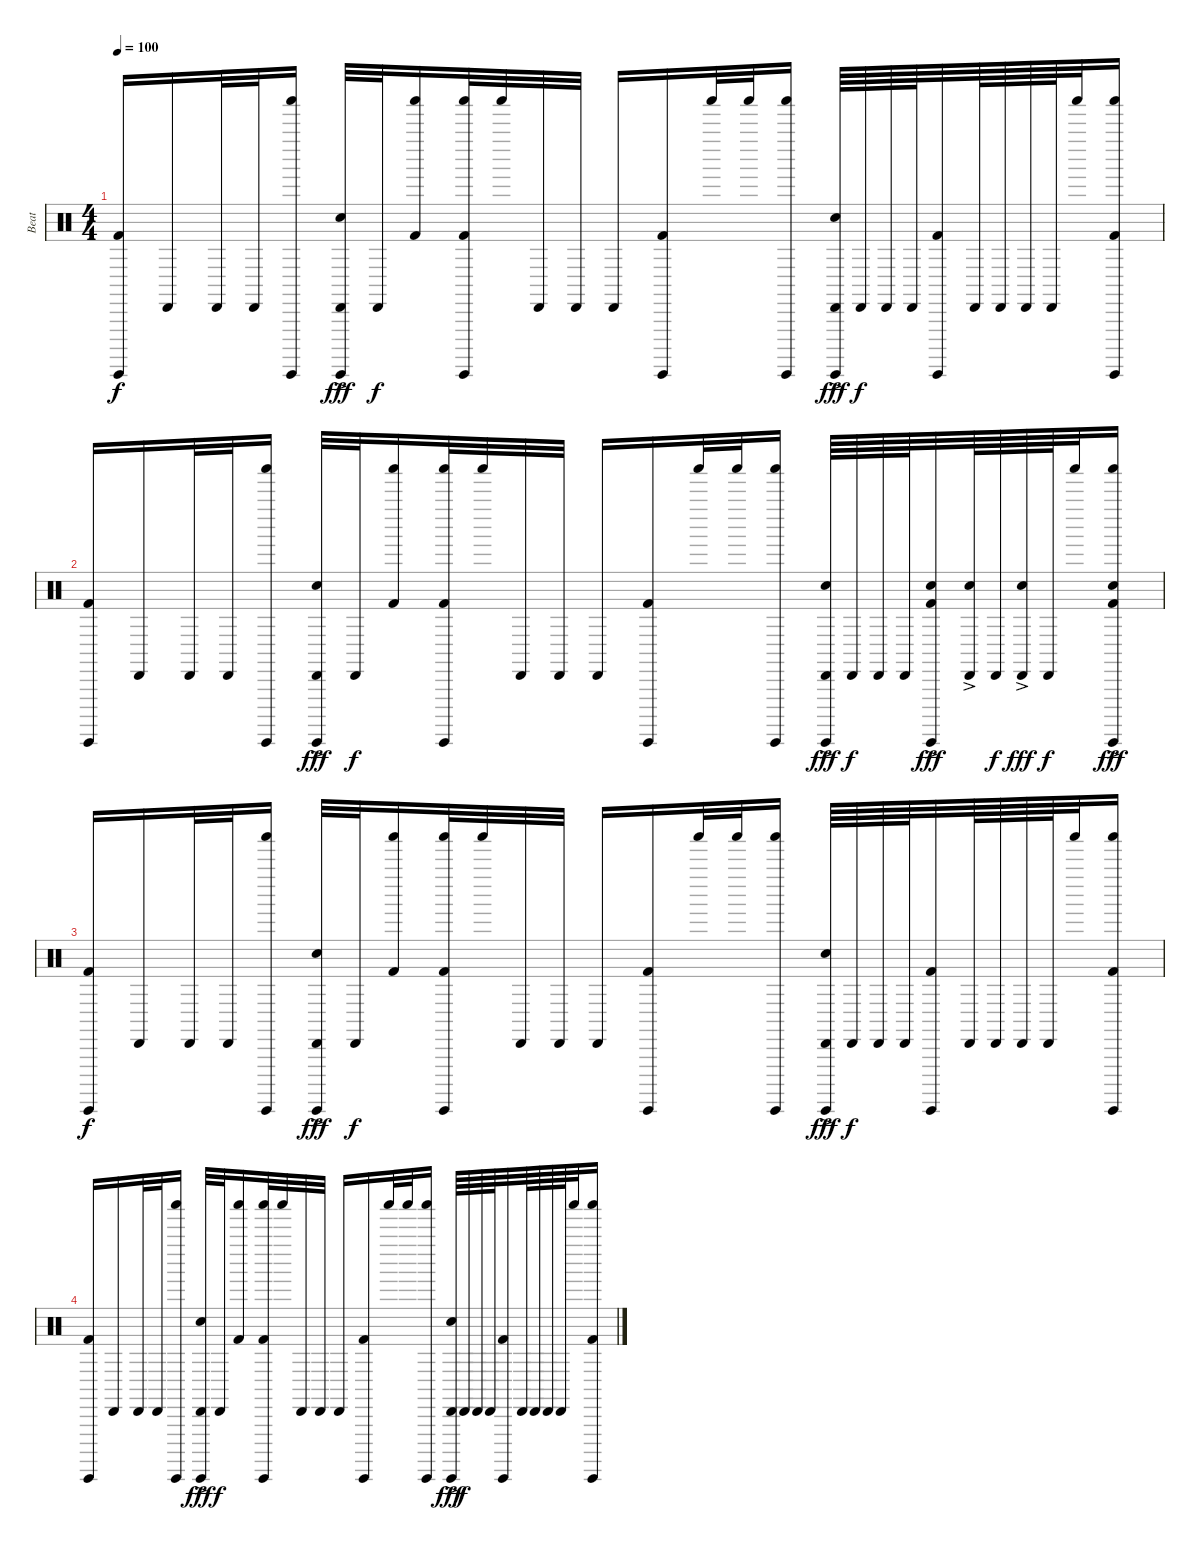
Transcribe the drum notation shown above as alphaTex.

\track ("Beat" "Beat") {instrument percussion}
\staff {score}
\articulation defaults
\ts (4 4)
\tempo 100
\clef neutral
\ks c
("Guiro (hit)" "Kick (hit) 2").16{dy f} "Cabasa (hit)".16 "Cabasa (hit)".32 "Cabasa (hit)".32 ("Guiro (hit)" "Shaker (hit)").16 ("Guiro (hit)" "Cabasa (hit)" "Snare (hit) 2"{ac}).32{dy fff} "Cabasa (hit)".32{dy f} ("Shaker (hit)" "Kick (hit) 2").16 ("Guiro (hit)" "Shaker (hit)" "Kick (hit) 2").32 "Shaker (hit)".32 "Cabasa (hit)".32 "Cabasa (hit)".32 "Cabasa (hit)".16 ("Guiro (hit)" "Kick (hit) 2").16 "Shaker (hit)".32 "Shaker (hit)".32 ("Guiro (hit)" "Shaker (hit)").16 ("Guiro (hit)" "Cabasa (hit)" "Snare (hit) 2"{ac}).64{dy fff} "Cabasa (hit)".64{dy f} "Cabasa (hit)".64 "Cabasa (hit)".64 ("Guiro (hit)" "Kick (hit) 2").32 "Cabasa (hit)".64 "Cabasa (hit)".64 "Cabasa (hit)".64 "Cabasa (hit)".64 "Shaker (hit)".32 ("Guiro (hit)" "Shaker (hit)" "Kick (hit) 2").16 |
("Guiro (hit)" "Kick (hit) 2").16 "Cabasa (hit)".16 "Cabasa (hit)".32 "Cabasa (hit)".32 ("Guiro (hit)" "Shaker (hit)").16 ("Guiro (hit)" "Cabasa (hit)" "Snare (hit) 2"{ac}).32{dy fff} "Cabasa (hit)".32{dy f} ("Shaker (hit)" "Kick (hit) 2").16 ("Guiro (hit)" "Shaker (hit)" "Kick (hit) 2").32 "Shaker (hit)".32 "Cabasa (hit)".32 "Cabasa (hit)".32 "Cabasa (hit)".16 ("Guiro (hit)" "Kick (hit) 2").16 "Shaker (hit)".32 "Shaker (hit)".32 ("Guiro (hit)" "Shaker (hit)").16 ("Guiro (hit)" "Cabasa (hit)" "Snare (hit) 2"{ac}).64{dy fff} "Cabasa (hit)".64{dy f} "Cabasa (hit)".64 "Cabasa (hit)".64 ("Guiro (hit)" "Snare (hit) 2"{ac} "Kick (hit) 2").32{dy fff} ("Cabasa (hit)" "Snare (hit) 2"{ac}).64 "Cabasa (hit)".64{dy f} ("Cabasa (hit)" "Snare (hit) 2"{ac}).64{dy fff} "Cabasa (hit)".64{dy f} "Shaker (hit)".32 ("Guiro (hit)" "Shaker (hit)" "Snare (hit) 2"{ac} "Kick (hit) 2").16{dy fff} |
("Guiro (hit)" "Kick (hit) 2").16{dy f} "Cabasa (hit)".16 "Cabasa (hit)".32 "Cabasa (hit)".32 ("Guiro (hit)" "Shaker (hit)").16 ("Guiro (hit)" "Cabasa (hit)" "Snare (hit) 2"{ac}).32{dy fff} "Cabasa (hit)".32{dy f} ("Shaker (hit)" "Kick (hit) 2").16 ("Guiro (hit)" "Shaker (hit)" "Kick (hit) 2").32 "Shaker (hit)".32 "Cabasa (hit)".32 "Cabasa (hit)".32 "Cabasa (hit)".16 ("Guiro (hit)" "Kick (hit) 2").16 "Shaker (hit)".32 "Shaker (hit)".32 ("Guiro (hit)" "Shaker (hit)").16 ("Guiro (hit)" "Cabasa (hit)" "Snare (hit) 2"{ac}).64{dy fff} "Cabasa (hit)".64{dy f} "Cabasa (hit)".64 "Cabasa (hit)".64 ("Guiro (hit)" "Kick (hit) 2").32 "Cabasa (hit)".64 "Cabasa (hit)".64 "Cabasa (hit)".64 "Cabasa (hit)".64 "Shaker (hit)".32 ("Guiro (hit)" "Shaker (hit)" "Kick (hit) 2").16 |
("Guiro (hit)" "Kick (hit) 2").16 "Cabasa (hit)".16 "Cabasa (hit)".32 "Cabasa (hit)".32 ("Guiro (hit)" "Shaker (hit)").16 ("Guiro (hit)" "Cabasa (hit)" "Snare (hit) 2"{ac}).32{dy fff} "Cabasa (hit)".32{dy f} ("Shaker (hit)" "Kick (hit) 2").16 ("Guiro (hit)" "Shaker (hit)" "Kick (hit) 2").32 "Shaker (hit)".32 "Cabasa (hit)".32 "Cabasa (hit)".32 "Cabasa (hit)".16 ("Guiro (hit)" "Kick (hit) 2").16 "Shaker (hit)".32 "Shaker (hit)".32 ("Guiro (hit)" "Shaker (hit)").16 ("Guiro (hit)" "Cabasa (hit)" "Snare (hit) 2"{ac}).64{dy fff} "Cabasa (hit)".64{dy f} "Cabasa (hit)".64 "Cabasa (hit)".64 ("Guiro (hit)" "Kick (hit) 2").32 "Cabasa (hit)".64 "Cabasa (hit)".64 "Cabasa (hit)".64 "Cabasa (hit)".64 "Shaker (hit)".32 ("Guiro (hit)" "Shaker (hit)" "Kick (hit) 2").16
